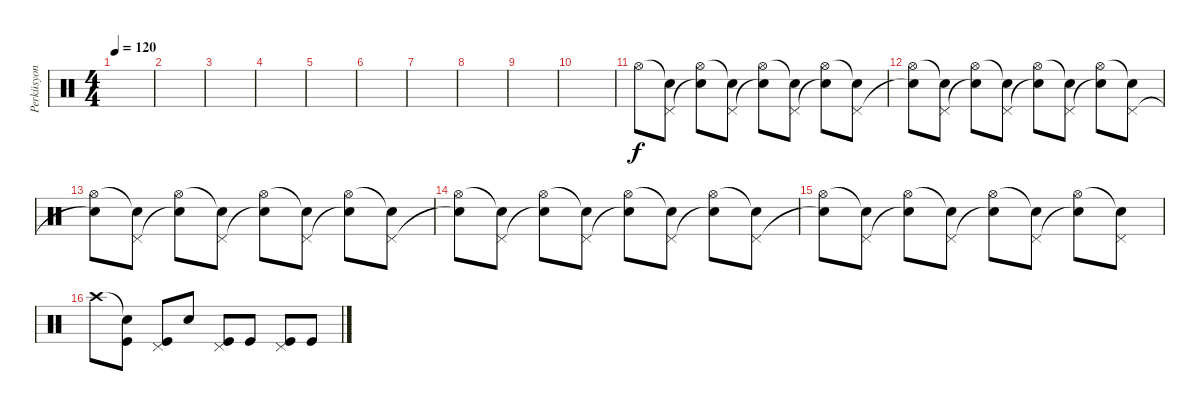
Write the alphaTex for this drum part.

\track ("Perküsyon" "Perküsyon") {instrument percussion}
\staff {score}
\articulation defaults
\ts (4 4)
\tempo 120
\clef neutral
\ks c
|
|
|
|
|
|
|
|
|
|
"Hi-Hat (open)".8 ("Snare (hit)"{t} "Pedal Hi-Hat (hit)").8 ("Hi-Hat (open)" "Snare (hit)"{t}).8 ("Snare (hit)"{t} "Pedal Hi-Hat (hit)").8 ("Hi-Hat (open)" "Snare (hit)"{t}).8 ("Snare (hit)"{t} "Pedal Hi-Hat (hit)").8 ("Hi-Hat (open)" "Snare (hit)"{t}).8 ("Snare (hit)"{t} "Pedal Hi-Hat (hit)").8 |
("Hi-Hat (open)" "Snare (hit)"{t}).8 ("Snare (hit)"{t} "Pedal Hi-Hat (hit)").8 ("Hi-Hat (open)" "Snare (hit)"{t}).8 ("Snare (hit)"{t} "Pedal Hi-Hat (hit)").8 ("Hi-Hat (open)" "Snare (hit)"{t}).8 ("Snare (hit)"{t} "Pedal Hi-Hat (hit)").8 ("Hi-Hat (open)" "Snare (hit)"{t}).8 ("Snare (hit)"{t} "Pedal Hi-Hat (hit)").8 |
("Hi-Hat (open)" "Snare (hit)"{t}).8 ("Snare (hit)"{t} "Pedal Hi-Hat (hit)").8 ("Hi-Hat (open)" "Snare (hit)"{t}).8 ("Snare (hit)"{t} "Pedal Hi-Hat (hit)").8 ("Hi-Hat (open)" "Snare (hit)"{t}).8 ("Snare (hit)"{t} "Pedal Hi-Hat (hit)").8 ("Hi-Hat (open)" "Snare (hit)"{t}).8 ("Snare (hit)"{t} "Pedal Hi-Hat (hit)").8 |
("Hi-Hat (open)" "Snare (hit)"{t}).8 ("Snare (hit)"{t} "Pedal Hi-Hat (hit)").8 ("Hi-Hat (open)" "Snare (hit)"{t}).8 ("Snare (hit)"{t} "Pedal Hi-Hat (hit)").8 ("Hi-Hat (open)" "Snare (hit)"{t}).8 ("Snare (hit)"{t} "Pedal Hi-Hat (hit)").8 ("Hi-Hat (open)" "Snare (hit)"{t}).8 ("Snare (hit)"{t} "Pedal Hi-Hat (hit)").8 |
("Hi-Hat (open)" "Snare (hit)"{t}).8 ("Snare (hit)"{t} "Pedal Hi-Hat (hit)").8 ("Hi-Hat (open)" "Snare (hit)"{t}).8 ("Snare (hit)"{t} "Pedal Hi-Hat (hit)").8 ("Hi-Hat (open)" "Snare (hit)"{t}).8 ("Snare (hit)"{t} "Pedal Hi-Hat (hit)").8 ("Hi-Hat (open)" "Snare (hit)"{t}).8 ("Snare (hit)"{t} "Pedal Hi-Hat (hit)").8 |
"Crash high (hit)".8 ("Snare (hit)"{t} "Kick (hit)").8 ("Pedal Hi-Hat (hit)" "Kick (hit)").8 "Snare (hit) 2".8 ("Pedal Hi-Hat (hit)" "Kick (hit)").8 "Kick (hit)".8 ("Pedal Hi-Hat (hit)" "Kick (hit)").8 "Kick (hit)".8
